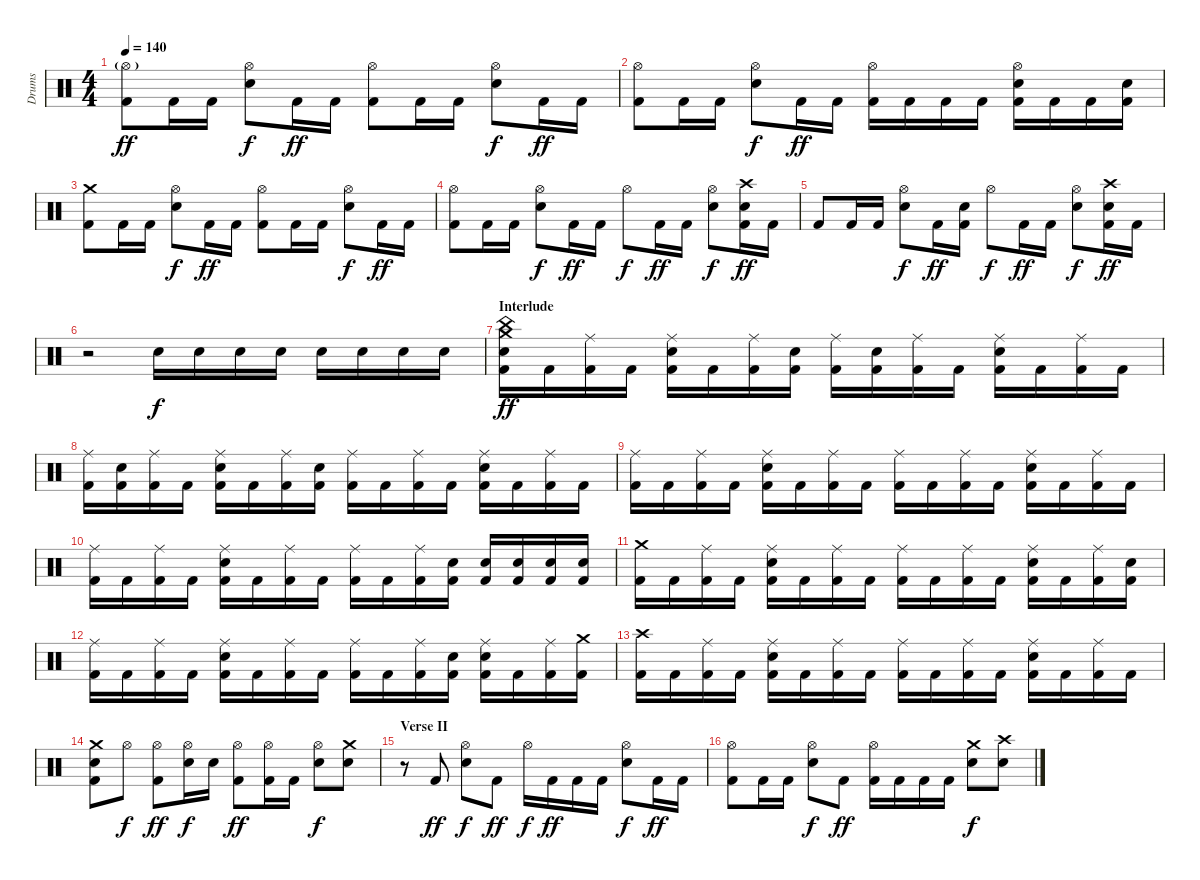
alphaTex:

\track ("Drums" "Drums") {instrument percussion}
\staff {score}
\articulation defaults
\ts (4 4)
\tempo 140
\clef neutral
\ks c
("Hi-Hat (open)"{g} "Kick (hit) 2").8{dy ff} "Kick (hit) 2".16 "Kick (hit) 2".16 ("Hi-Hat (open)" "Snare (hit) 2").8{dy f} "Kick (hit) 2".16{dy ff} "Kick (hit) 2".16 ("Hi-Hat (open)" "Kick (hit) 2").8 "Kick (hit) 2".16 "Kick (hit) 2".16 ("Hi-Hat (open)" "Snare (hit) 2").8{dy f} "Kick (hit) 2".16{dy ff} "Kick (hit) 2".16 |
("Hi-Hat (open)" "Kick (hit) 2").8 "Kick (hit) 2".16 "Kick (hit) 2".16 ("Hi-Hat (open)" "Snare (hit) 2").8{dy f} "Kick (hit) 2".16{dy ff} "Kick (hit) 2".16 ("Hi-Hat (open)" "Kick (hit) 2").16 "Kick (hit) 2".16 "Kick (hit) 2".16 "Kick (hit) 2".16 ("Hi-Hat (open)" "Snare (hit) 2" "Kick (hit) 2").16 "Kick (hit) 2".16 "Kick (hit) 2".16 ("Snare (hit) 2" "Kick (hit) 2").16 |
("Crash medium (hit)" "Kick (hit) 2").8 "Kick (hit) 2".16 "Kick (hit) 2".16 ("Hi-Hat (open)" "Snare (hit) 2").8{dy f} "Kick (hit) 2".16{dy ff} "Kick (hit) 2".16 ("Hi-Hat (open)" "Kick (hit) 2").8 "Kick (hit) 2".16 "Kick (hit) 2".16 ("Hi-Hat (open)" "Snare (hit) 2").8{dy f} "Kick (hit) 2".16{dy ff} "Kick (hit) 2".16 |
("Hi-Hat (open)" "Kick (hit) 2").8 "Kick (hit) 2".16 "Kick (hit) 2".16 ("Hi-Hat (open)" "Snare (hit) 2").8{dy f} "Kick (hit) 2".16{dy ff} "Kick (hit) 2".16 "Hi-Hat (open)".8{dy f} "Kick (hit) 2".16{dy ff} "Kick (hit) 2".16 ("Hi-Hat (open)" "Snare (hit) 2").8{dy f} ("Crash high (hit)" "Snare (hit) 2" "Kick (hit) 2").16{dy ff} "Kick (hit) 2".16 |
"Kick (hit) 2".8 "Kick (hit) 2".16 "Kick (hit) 2".16 ("Hi-Hat (open)" "Snare (hit) 2").8{dy f} "Kick (hit) 2".16{dy ff} ("Snare (hit) 2" "Kick (hit) 2").16 "Hi-Hat (open)".8{dy f} "Kick (hit) 2".16{dy ff} "Kick (hit) 2".16 ("Hi-Hat (open)" "Snare (hit) 2").8{dy f} ("Crash high (hit)" "Snare (hit) 2" "Kick (hit) 2").16{dy ff} "Kick (hit) 2".16 |
r.2 "Snare (hit) 2".16{dy f} "Snare (hit) 2".16 "Snare (hit) 2".16 "Snare (hit) 2".16 "Snare (hit) 2".16 "Snare (hit) 2".16 "Snare (hit) 2".16 "Snare (hit) 2".16 |
\section ("" "Interlude")
("China (hit)" "Crash medium (hit)" "Snare (hit) 2" "Kick (hit) 2").16{dy ff} "Kick (hit) 2".16 ("Ride (middle)" "Kick (hit) 2").16 "Kick (hit) 2".16 ("Ride (middle)" "Snare (hit) 2" "Kick (hit) 2").16 "Kick (hit) 2".16 ("Ride (middle)" "Kick (hit) 2").16 ("Snare (hit) 2" "Kick (hit) 2").16 ("Ride (middle)" "Kick (hit) 2").16 ("Snare (hit) 2" "Kick (hit) 2").16 ("Ride (middle)" "Kick (hit) 2").16 "Kick (hit) 2".16 ("Ride (middle)" "Snare (hit) 2" "Kick (hit) 2").16 "Kick (hit) 2".16 ("Ride (middle)" "Kick (hit) 2").16 "Kick (hit) 2".16 |
("Ride (middle)" "Kick (hit) 2").16 ("Snare (hit) 2" "Kick (hit) 2").16 ("Ride (middle)" "Kick (hit) 2").16 "Kick (hit) 2".16 ("Ride (middle)" "Snare (hit) 2" "Kick (hit) 2").16 "Kick (hit) 2".16 ("Ride (middle)" "Kick (hit) 2").16 ("Snare (hit) 2" "Kick (hit) 2").16 ("Ride (middle)" "Kick (hit) 2").16 "Kick (hit) 2".16 ("Ride (middle)" "Kick (hit) 2").16 "Kick (hit) 2".16 ("Ride (middle)" "Snare (hit) 2" "Kick (hit) 2").16 "Kick (hit) 2".16 ("Ride (middle)" "Kick (hit) 2").16 "Kick (hit) 2".16 |
("Ride (middle)" "Kick (hit) 2").16 "Kick (hit) 2".16 ("Ride (middle)" "Kick (hit) 2").16 "Kick (hit) 2".16 ("Ride (middle)" "Snare (hit) 2" "Kick (hit) 2").16 "Kick (hit) 2".16 ("Ride (middle)" "Kick (hit) 2").16 "Kick (hit) 2".16 ("Ride (middle)" "Kick (hit) 2").16 "Kick (hit) 2".16 ("Ride (middle)" "Kick (hit) 2").16 "Kick (hit) 2".16 ("Ride (middle)" "Snare (hit) 2" "Kick (hit) 2").16 "Kick (hit) 2".16 ("Ride (middle)" "Kick (hit) 2").16 "Kick (hit) 2".16 |
("Ride (middle)" "Kick (hit) 2").16 "Kick (hit) 2".16 ("Ride (middle)" "Kick (hit) 2").16 "Kick (hit) 2".16 ("Ride (middle)" "Snare (hit) 2" "Kick (hit) 2").16 "Kick (hit) 2".16 ("Ride (middle)" "Kick (hit) 2").16 "Kick (hit) 2".16 ("Ride (middle)" "Kick (hit) 2").16 "Kick (hit) 2".16 ("Ride (middle)" "Kick (hit) 2").16 ("Snare (hit) 2" "Kick (hit) 2").16 ("Snare (hit) 2" "Kick (hit) 2").16 ("Snare (hit) 2" "Kick (hit) 2").16 ("Snare (hit) 2" "Kick (hit) 2").16 ("Snare (hit) 2" "Kick (hit) 2").16 |
("Crash medium (hit)" "Kick (hit) 2").16 "Kick (hit) 2".16 ("Ride (middle)" "Kick (hit) 2").16 "Kick (hit) 2".16 ("Ride (middle)" "Snare (hit) 2" "Kick (hit) 2").16 "Kick (hit) 2".16 ("Ride (middle)" "Kick (hit) 2").16 "Kick (hit) 2".16 ("Ride (middle)" "Kick (hit) 2").16 "Kick (hit) 2".16 ("Ride (middle)" "Kick (hit) 2").16 "Kick (hit) 2".16 ("Ride (middle)" "Snare (hit) 2" "Kick (hit) 2").16 "Kick (hit) 2".16 ("Ride (middle)" "Kick (hit) 2").16 ("Snare (hit) 2" "Kick (hit) 2").16 |
("Ride (middle)" "Kick (hit) 2").16 "Kick (hit) 2".16 ("Ride (middle)" "Kick (hit) 2").16 "Kick (hit) 2".16 ("Ride (middle)" "Snare (hit) 2" "Kick (hit) 2").16 "Kick (hit) 2".16 ("Ride (middle)" "Kick (hit) 2").16 "Kick (hit) 2".16 ("Ride (middle)" "Kick (hit) 2").16 "Kick (hit) 2".16 ("Ride (middle)" "Kick (hit) 2").16 ("Snare (hit) 2" "Kick (hit) 2").16 ("Ride (middle)" "Snare (hit) 2" "Kick (hit) 2").16 "Kick (hit) 2".16 ("Ride (middle)" "Kick (hit) 2").16 ("Crash medium (hit)" "Kick (hit) 2").16 |
("Crash high (hit)" "Kick (hit) 2").16 "Kick (hit) 2".16 ("Ride (middle)" "Kick (hit) 2").16 "Kick (hit) 2".16 ("Ride (middle)" "Snare (hit) 2" "Kick (hit) 2").16 "Kick (hit) 2".16 ("Ride (middle)" "Kick (hit) 2").16 "Kick (hit) 2".16 ("Ride (middle)" "Kick (hit) 2").16 "Kick (hit) 2".16 ("Ride (middle)" "Kick (hit) 2").16 "Kick (hit) 2".16 ("Ride (middle)" "Snare (hit) 2" "Kick (hit) 2").16 "Kick (hit) 2".16 ("Ride (middle)" "Kick (hit) 2").16 "Kick (hit) 2".16 |
("Crash medium (hit)" "Snare (hit) 2" "Kick (hit) 2").8 "Hi-Hat (open)".8{dy f} ("Hi-Hat (open)" "Kick (hit) 2").8{dy ff} ("Hi-Hat (open)" "Snare (hit) 2").16{dy f} "Snare (hit) 2".16 ("Hi-Hat (open)" "Kick (hit) 2").8{dy ff} ("Hi-Hat (open)" "Kick (hit) 2").16 "Kick (hit) 2".16 ("Hi-Hat (open)" "Snare (hit) 2").8{dy f} ("Crash medium (hit)" "Snare (hit) 2").8 |
\section ("" "Verse II")
r.8 "Kick (hit) 2".8{dy ff} ("Hi-Hat (open)" "Snare (hit) 2").8{dy f} "Kick (hit) 2".8{dy ff} "Hi-Hat (open)".16{dy f} "Kick (hit) 2".16{dy ff} "Kick (hit) 2".16 "Kick (hit) 2".16 ("Hi-Hat (open)" "Snare (hit) 2").8{dy f} "Kick (hit) 2".16{dy ff} "Kick (hit) 2".16 |
("Hi-Hat (open)" "Kick (hit) 2").8 "Kick (hit) 2".16 "Kick (hit) 2".16 ("Hi-Hat (open)" "Snare (hit) 2").8{dy f} "Kick (hit) 2".8{dy ff} ("Hi-Hat (open)" "Kick (hit) 2").16 "Kick (hit) 2".16 "Kick (hit) 2".16 "Kick (hit) 2".16 ("Crash medium (hit)" "Snare (hit) 2").8{dy f} ("Crash high (hit)" "Snare (hit) 2").8
